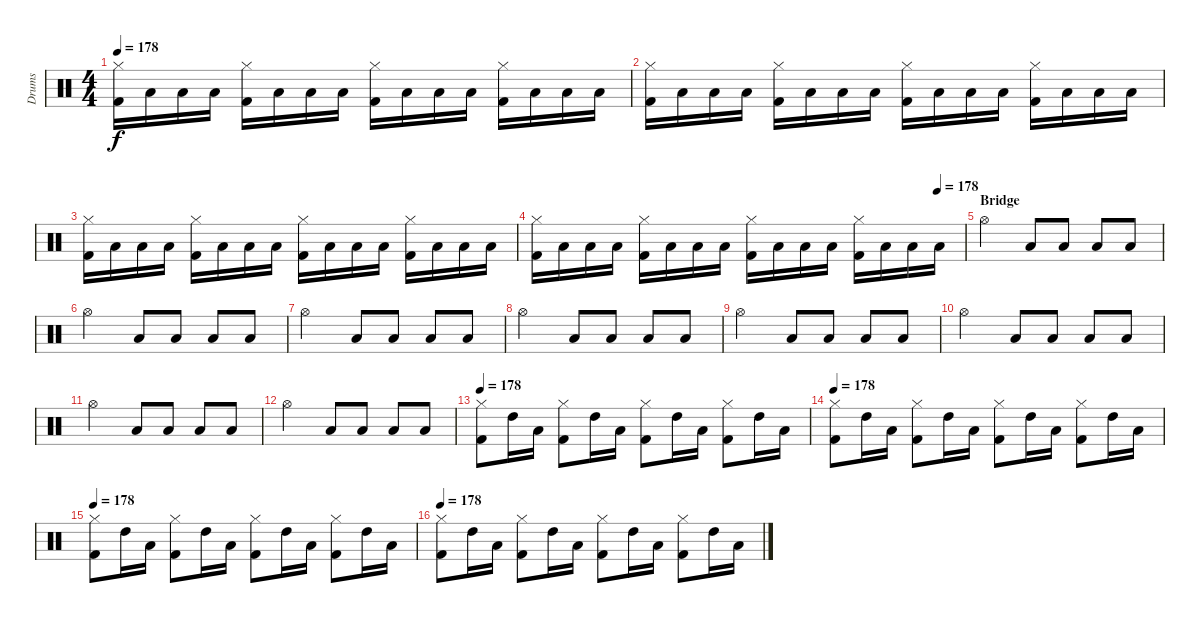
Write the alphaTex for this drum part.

\track ("Drums" "Drums") {instrument percussion}
\staff {score}
\articulation defaults
\ts (4 4)
\tempo 178
\clef neutral
\ks c
("Kick (hit) 2" "Hi-Hat (closed)").16{dy f} "Low Tom (hit)".16 "Low Tom (hit)".16 "Low Tom (hit)".16 ("Kick (hit) 2" "Hi-Hat (closed)").16 "Low Tom (hit)".16 "Low Tom (hit)".16 "Low Tom (hit)".16 ("Kick (hit) 2" "Hi-Hat (closed)").16 "Low Tom (hit)".16 "Low Tom (hit)".16 "Low Tom (hit)".16 ("Hi-Hat (closed)" "Kick (hit) 2").16 "Low Tom (hit)".16 "Low Tom (hit)".16 "Low Tom (hit)".16 |
("Kick (hit) 2" "Hi-Hat (closed)").16 "Low Tom (hit)".16 "Low Tom (hit)".16 "Low Tom (hit)".16 ("Kick (hit) 2" "Hi-Hat (closed)").16 "Low Tom (hit)".16 "Low Tom (hit)".16 "Low Tom (hit)".16 ("Kick (hit) 2" "Hi-Hat (closed)").16 "Low Tom (hit)".16 "Low Tom (hit)".16 "Low Tom (hit)".16 ("Hi-Hat (closed)" "Kick (hit) 2").16 "Low Tom (hit)".16 "Low Tom (hit)".16 "Low Tom (hit)".16 |
("Kick (hit) 2" "Hi-Hat (closed)").16 "Low Tom (hit)".16 "Low Tom (hit)".16 "Low Tom (hit)".16 ("Kick (hit) 2" "Hi-Hat (closed)").16 "Low Tom (hit)".16 "Low Tom (hit)".16 "Low Tom (hit)".16 ("Kick (hit) 2" "Hi-Hat (closed)").16 "Low Tom (hit)".16 "Low Tom (hit)".16 "Low Tom (hit)".16 ("Hi-Hat (closed)" "Kick (hit) 2").16 "Low Tom (hit)".16 "Low Tom (hit)".16 "Low Tom (hit)".16 |
\tempo (178 0.9375)
("Kick (hit) 2" "Hi-Hat (closed)").16 "Low Tom (hit)".16 "Low Tom (hit)".16 "Low Tom (hit)".16 ("Kick (hit) 2" "Hi-Hat (closed)").16 "Low Tom (hit)".16 "Low Tom (hit)".16 "Low Tom (hit)".16 ("Kick (hit) 2" "Hi-Hat (closed)").16 "Low Tom (hit)".16 "Low Tom (hit)".16 "Low Tom (hit)".16 ("Hi-Hat (closed)" "Kick (hit) 2").16 "Low Tom (hit)".16 "Low Tom (hit)".16 "Low Tom (hit)".16 |
\section ("" "Bridge")
"Hi-Hat (open)".2 "Low Tom (hit)".8 "Low Tom (hit)".8 "Low Tom (hit)".8 "Low Tom (hit)".8 |
"Hi-Hat (open)".2 "Low Tom (hit)".8 "Low Tom (hit)".8 "Low Tom (hit)".8 "Low Tom (hit)".8 |
"Hi-Hat (open)".2 "Low Tom (hit)".8 "Low Tom (hit)".8 "Low Tom (hit)".8 "Low Tom (hit)".8 |
"Hi-Hat (open)".2 "Low Tom (hit)".8 "Low Tom (hit)".8 "Low Tom (hit)".8 "Low Tom (hit)".8 |
"Hi-Hat (open)".2 "Low Tom (hit)".8 "Low Tom (hit)".8 "Low Tom (hit)".8 "Low Tom (hit)".8 |
"Hi-Hat (open)".2 "Low Tom (hit)".8 "Low Tom (hit)".8 "Low Tom (hit)".8 "Low Tom (hit)".8 |
"Hi-Hat (open)".2 "Low Tom (hit)".8 "Low Tom (hit)".8 "Low Tom (hit)".8 "Low Tom (hit)".8 |
"Hi-Hat (open)".2 "Low Tom (hit)".8 "Low Tom (hit)".8 "Low Tom (hit)".8 "Low Tom (hit)".8 |
\tempo 178
("Hi-Hat (closed)" "Kick (hit) 2").8 "High Tom (hit)".16 "Low Tom (hit)".16 ("Hi-Hat (closed)" "Kick (hit) 2").8 "High Tom (hit)".16 "Low Tom (hit)".16 ("Hi-Hat (closed)" "Kick (hit) 2").8 "High Tom (hit)".16 "Low Tom (hit)".16 ("Hi-Hat (closed)" "Kick (hit) 2").8 "High Tom (hit)".16 "Low Tom (hit)".16 |
\tempo 178
("Hi-Hat (closed)" "Kick (hit) 2").8 "High Tom (hit)".16 "Low Tom (hit)".16 ("Hi-Hat (closed)" "Kick (hit) 2").8 "High Tom (hit)".16 "Low Tom (hit)".16 ("Hi-Hat (closed)" "Kick (hit) 2").8 "High Tom (hit)".16 "Low Tom (hit)".16 ("Hi-Hat (closed)" "Kick (hit) 2").8 "High Tom (hit)".16 "Low Tom (hit)".16 |
\tempo 178
("Hi-Hat (closed)" "Kick (hit) 2").8 "High Tom (hit)".16 "Low Tom (hit)".16 ("Hi-Hat (closed)" "Kick (hit) 2").8 "High Tom (hit)".16 "Low Tom (hit)".16 ("Hi-Hat (closed)" "Kick (hit) 2").8 "High Tom (hit)".16 "Low Tom (hit)".16 ("Hi-Hat (closed)" "Kick (hit) 2").8 "High Tom (hit)".16 "Low Tom (hit)".16 |
\tempo 178
("Hi-Hat (closed)" "Kick (hit) 2").8 "High Tom (hit)".16 "Low Tom (hit)".16 ("Hi-Hat (closed)" "Kick (hit) 2").8 "High Tom (hit)".16 "Low Tom (hit)".16 ("Hi-Hat (closed)" "Kick (hit) 2").8 "High Tom (hit)".16 "Low Tom (hit)".16 ("Hi-Hat (closed)" "Kick (hit) 2").8 "High Tom (hit)".16 "Low Tom (hit)".16
